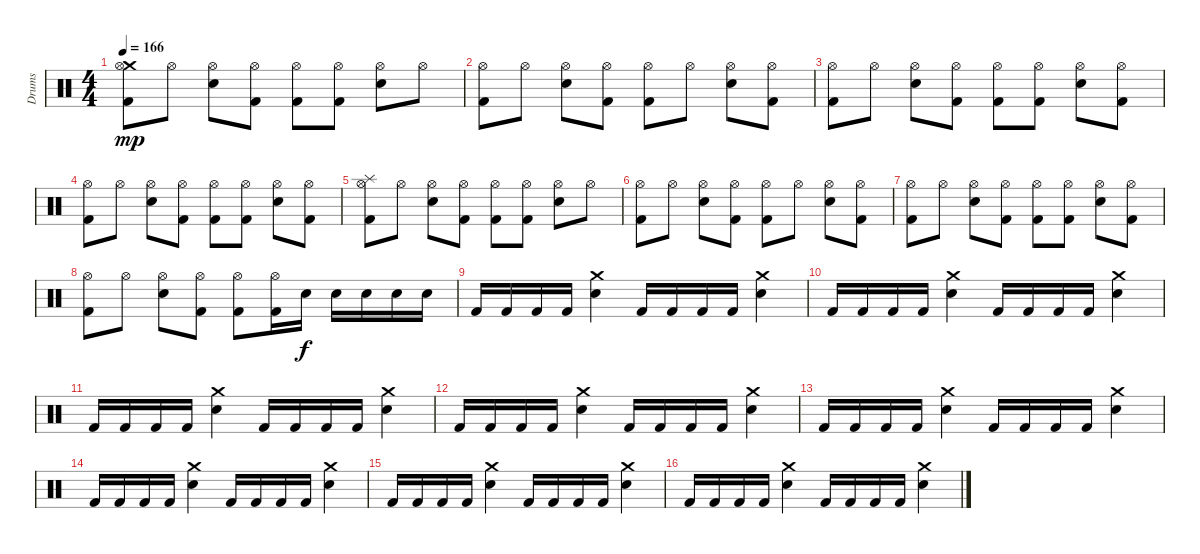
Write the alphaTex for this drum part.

\track ("Drums" "Drums") {instrument percussion}
\staff {score}
\articulation defaults
\ts (4 4)
\tempo 166
\clef neutral
\ks c
("Crash medium (hit)" "Hi-Hat (open)" "Kick (hit) 2").8{dy mp} "Hi-Hat (open)".8 ("Hi-Hat (open)" "Electric Snare (hit)").8 ("Hi-Hat (open)" "Kick (hit) 2").8 ("Hi-Hat (open)" "Kick (hit) 2").8 ("Hi-Hat (open)" "Kick (hit) 2").8 ("Hi-Hat (open)" "Electric Snare (hit)").8 "Hi-Hat (open)".8 |
("Hi-Hat (open)" "Kick (hit) 2").8 "Hi-Hat (open)".8 ("Hi-Hat (open)" "Electric Snare (hit)").8 ("Hi-Hat (open)" "Kick (hit) 2").8 ("Hi-Hat (open)" "Kick (hit) 2").8 "Hi-Hat (open)".8 ("Hi-Hat (open)" "Electric Snare (hit)").8 ("Hi-Hat (open)" "Kick (hit) 2").8 |
("Hi-Hat (open)" "Kick (hit) 2").8 "Hi-Hat (open)".8 ("Hi-Hat (open)" "Electric Snare (hit)").8 ("Hi-Hat (open)" "Kick (hit) 2").8 ("Hi-Hat (open)" "Kick (hit) 2").8 ("Hi-Hat (open)" "Kick (hit) 2").8 ("Hi-Hat (open)" "Electric Snare (hit)").8 ("Hi-Hat (open)" "Kick (hit) 2").8 |
("Hi-Hat (open)" "Kick (hit) 2").8 "Hi-Hat (open)".8 ("Hi-Hat (open)" "Electric Snare (hit)").8 ("Hi-Hat (open)" "Kick (hit) 2").8 ("Hi-Hat (open)" "Kick (hit) 2").8 ("Hi-Hat (open)" "Kick (hit) 2").8 ("Hi-Hat (open)" "Electric Snare (hit)").8 ("Hi-Hat (open)" "Kick (hit) 2").8 |
("Splash (hit)" "Hi-Hat (open)" "Kick (hit) 2").8 "Hi-Hat (open)".8 ("Hi-Hat (open)" "Electric Snare (hit)").8 ("Hi-Hat (open)" "Kick (hit) 2").8 ("Hi-Hat (open)" "Kick (hit) 2").8 ("Hi-Hat (open)" "Kick (hit) 2").8 ("Hi-Hat (open)" "Electric Snare (hit)").8 "Hi-Hat (open)".8 |
("Hi-Hat (open)" "Kick (hit) 2").8 "Hi-Hat (open)".8 ("Hi-Hat (open)" "Electric Snare (hit)").8 ("Hi-Hat (open)" "Kick (hit) 2").8 ("Hi-Hat (open)" "Kick (hit) 2").8 "Hi-Hat (open)".8 ("Hi-Hat (open)" "Electric Snare (hit)").8 ("Hi-Hat (open)" "Kick (hit) 2").8 |
("Hi-Hat (open)" "Kick (hit) 2").8 "Hi-Hat (open)".8 ("Hi-Hat (open)" "Electric Snare (hit)").8 ("Hi-Hat (open)" "Kick (hit) 2").8 ("Hi-Hat (open)" "Kick (hit) 2").8 ("Hi-Hat (open)" "Kick (hit) 2").8 ("Hi-Hat (open)" "Electric Snare (hit)").8 ("Hi-Hat (open)" "Kick (hit) 2").8 |
("Hi-Hat (open)" "Kick (hit) 2").8 "Hi-Hat (open)".8 ("Hi-Hat (open)" "Electric Snare (hit)").8 ("Hi-Hat (open)" "Kick (hit) 2").8 ("Hi-Hat (open)" "Kick (hit) 2").8 ("Hi-Hat (open)" "Kick (hit) 2").16 "Electric Snare (hit)".16{dy f} "Electric Snare (hit)".16 "Electric Snare (hit)".16 "Electric Snare (hit)".16 "Electric Snare (hit)".16 |
"Kick (hit) 2".16 "Kick (hit) 2".16 "Kick (hit) 2".16 "Kick (hit) 2".16 ("Crash medium (hit)" "Electric Snare (hit)").4 "Kick (hit) 2".16 "Kick (hit) 2".16 "Kick (hit) 2".16 "Kick (hit) 2".16 ("Crash medium (hit)" "Electric Snare (hit)").4 |
"Kick (hit) 2".16 "Kick (hit) 2".16 "Kick (hit) 2".16 "Kick (hit) 2".16 ("Crash medium (hit)" "Electric Snare (hit)").4 "Kick (hit) 2".16 "Kick (hit) 2".16 "Kick (hit) 2".16 "Kick (hit) 2".16 ("Crash medium (hit)" "Electric Snare (hit)").4 |
"Kick (hit) 2".16 "Kick (hit) 2".16 "Kick (hit) 2".16 "Kick (hit) 2".16 ("Crash medium (hit)" "Electric Snare (hit)").4 "Kick (hit) 2".16 "Kick (hit) 2".16 "Kick (hit) 2".16 "Kick (hit) 2".16 ("Crash medium (hit)" "Electric Snare (hit)").4 |
"Kick (hit) 2".16 "Kick (hit) 2".16 "Kick (hit) 2".16 "Kick (hit) 2".16 ("Crash medium (hit)" "Electric Snare (hit)").4 "Kick (hit) 2".16 "Kick (hit) 2".16 "Kick (hit) 2".16 "Kick (hit) 2".16 ("Crash medium (hit)" "Electric Snare (hit)").4 |
"Kick (hit) 2".16 "Kick (hit) 2".16 "Kick (hit) 2".16 "Kick (hit) 2".16 ("Crash medium (hit)" "Electric Snare (hit)").4 "Kick (hit) 2".16 "Kick (hit) 2".16 "Kick (hit) 2".16 "Kick (hit) 2".16 ("Crash medium (hit)" "Electric Snare (hit)").4 |
"Kick (hit) 2".16 "Kick (hit) 2".16 "Kick (hit) 2".16 "Kick (hit) 2".16 ("Crash medium (hit)" "Electric Snare (hit)").4 "Kick (hit) 2".16 "Kick (hit) 2".16 "Kick (hit) 2".16 "Kick (hit) 2".16 ("Crash medium (hit)" "Electric Snare (hit)").4 |
"Kick (hit) 2".16 "Kick (hit) 2".16 "Kick (hit) 2".16 "Kick (hit) 2".16 ("Crash medium (hit)" "Electric Snare (hit)").4 "Kick (hit) 2".16 "Kick (hit) 2".16 "Kick (hit) 2".16 "Kick (hit) 2".16 ("Crash medium (hit)" "Electric Snare (hit)").4 |
"Kick (hit) 2".16 "Kick (hit) 2".16 "Kick (hit) 2".16 "Kick (hit) 2".16 ("Crash medium (hit)" "Electric Snare (hit)").4 "Kick (hit) 2".16 "Kick (hit) 2".16 "Kick (hit) 2".16 "Kick (hit) 2".16 ("Crash medium (hit)" "Electric Snare (hit)").4
